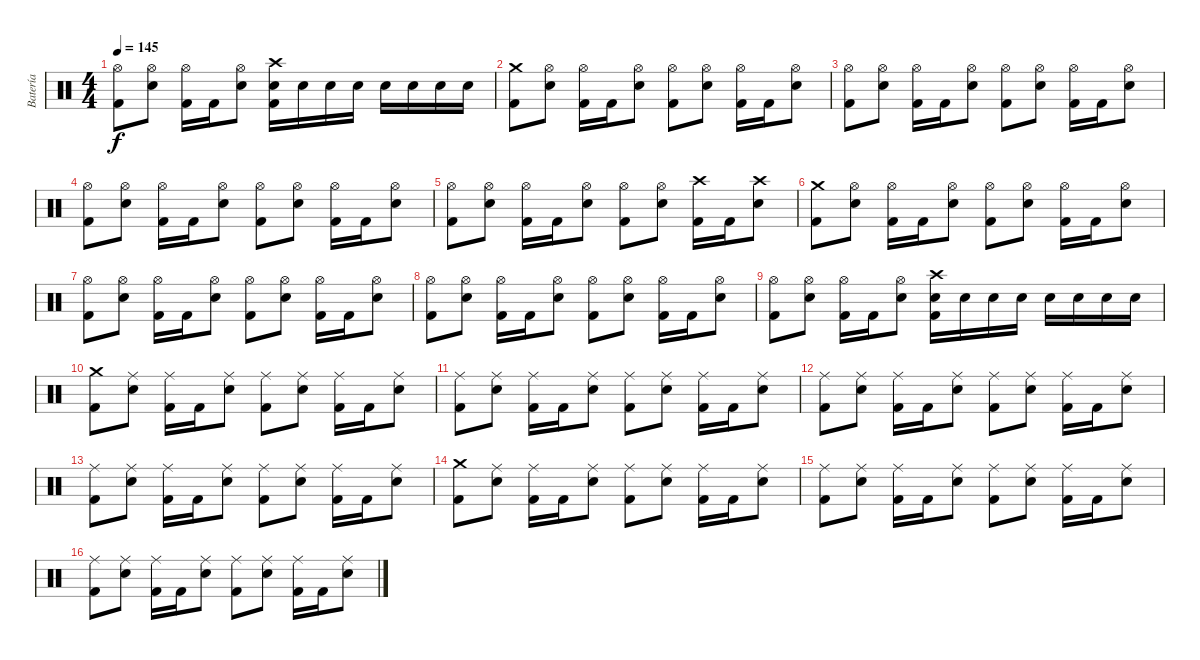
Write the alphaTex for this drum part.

\track ("Batería" "Batería") {instrument percussion}
\staff {score}
\articulation defaults
\ts (4 4)
\tempo 145
\clef neutral
\ks c
("Kick (hit) 2" "Hi-Hat (open)").8{dy f} ("Electric Snare (hit)" "Hi-Hat (open)").8 ("Kick (hit) 2" "Hi-Hat (open)").16 "Kick (hit) 2".16 ("Electric Snare (hit)" "Hi-Hat (open)").8 ("Kick (hit) 2" "Electric Snare (hit)" "Crash high (hit)").16 "Electric Snare (hit)".16 "Electric Snare (hit)".16 "Electric Snare (hit)".16 "Electric Snare (hit)".16 "Electric Snare (hit)".16 "Electric Snare (hit)".16 "Electric Snare (hit)".16 |
("Kick (hit) 2" "Crash medium (hit)").8 ("Electric Snare (hit)" "Hi-Hat (open)").8 ("Kick (hit) 2" "Hi-Hat (open)").16 "Kick (hit) 2".16 ("Electric Snare (hit)" "Hi-Hat (open)").8 ("Kick (hit) 2" "Hi-Hat (open)").8 ("Electric Snare (hit)" "Hi-Hat (open)").8 ("Kick (hit) 2" "Hi-Hat (open)").16 "Kick (hit) 2".16 ("Electric Snare (hit)" "Hi-Hat (open)").8 |
("Kick (hit) 2" "Hi-Hat (open)").8 ("Electric Snare (hit)" "Hi-Hat (open)").8 ("Kick (hit) 2" "Hi-Hat (open)").16 "Kick (hit) 2".16 ("Electric Snare (hit)" "Hi-Hat (open)").8 ("Kick (hit) 2" "Hi-Hat (open)").8 ("Electric Snare (hit)" "Hi-Hat (open)").8 ("Kick (hit) 2" "Hi-Hat (open)").16 "Kick (hit) 2".16 ("Electric Snare (hit)" "Hi-Hat (open)").8 |
("Kick (hit) 2" "Hi-Hat (open)").8 ("Electric Snare (hit)" "Hi-Hat (open)").8 ("Kick (hit) 2" "Hi-Hat (open)").16 "Kick (hit) 2".16 ("Electric Snare (hit)" "Hi-Hat (open)").8 ("Kick (hit) 2" "Hi-Hat (open)").8 ("Electric Snare (hit)" "Hi-Hat (open)").8 ("Kick (hit) 2" "Hi-Hat (open)").16 "Kick (hit) 2".16 ("Electric Snare (hit)" "Hi-Hat (open)").8 |
("Kick (hit) 2" "Hi-Hat (open)").8 ("Electric Snare (hit)" "Hi-Hat (open)").8 ("Kick (hit) 2" "Hi-Hat (open)").16 "Kick (hit) 2".16 ("Electric Snare (hit)" "Hi-Hat (open)").8 ("Kick (hit) 2" "Hi-Hat (open)").8 ("Electric Snare (hit)" "Hi-Hat (open)").8 ("Kick (hit) 2" "Crash high (hit)").16 "Kick (hit) 2".16 ("Electric Snare (hit)" "Crash high (hit)").8 |
("Kick (hit) 2" "Crash medium (hit)").8 ("Electric Snare (hit)" "Hi-Hat (open)").8 ("Kick (hit) 2" "Hi-Hat (open)").16 "Kick (hit) 2".16 ("Electric Snare (hit)" "Hi-Hat (open)").8 ("Kick (hit) 2" "Hi-Hat (open)").8 ("Electric Snare (hit)" "Hi-Hat (open)").8 ("Kick (hit) 2" "Hi-Hat (open)").16 "Kick (hit) 2".16 ("Electric Snare (hit)" "Hi-Hat (open)").8 |
("Kick (hit) 2" "Hi-Hat (open)").8 ("Electric Snare (hit)" "Hi-Hat (open)").8 ("Kick (hit) 2" "Hi-Hat (open)").16 "Kick (hit) 2".16 ("Electric Snare (hit)" "Hi-Hat (open)").8 ("Kick (hit) 2" "Hi-Hat (open)").8 ("Electric Snare (hit)" "Hi-Hat (open)").8 ("Kick (hit) 2" "Hi-Hat (open)").16 "Kick (hit) 2".16 ("Electric Snare (hit)" "Hi-Hat (open)").8 |
("Kick (hit) 2" "Hi-Hat (open)").8 ("Electric Snare (hit)" "Hi-Hat (open)").8 ("Kick (hit) 2" "Hi-Hat (open)").16 "Kick (hit) 2".16 ("Electric Snare (hit)" "Hi-Hat (open)").8 ("Kick (hit) 2" "Hi-Hat (open)").8 ("Electric Snare (hit)" "Hi-Hat (open)").8 ("Kick (hit) 2" "Hi-Hat (open)").16 "Kick (hit) 2".16 ("Electric Snare (hit)" "Hi-Hat (open)").8 |
("Kick (hit) 2" "Hi-Hat (open)").8 ("Electric Snare (hit)" "Hi-Hat (open)").8 ("Kick (hit) 2" "Hi-Hat (open)").16 "Kick (hit) 2".16 ("Electric Snare (hit)" "Hi-Hat (open)").8 ("Kick (hit) 2" "Electric Snare (hit)" "Crash high (hit)").16 "Electric Snare (hit)".16 "Electric Snare (hit)".16 "Electric Snare (hit)".16 "Electric Snare (hit)".16 "Electric Snare (hit)".16 "Electric Snare (hit)".16 "Electric Snare (hit)".16 |
("Kick (hit) 2" "Crash medium (hit)").8 ("Electric Snare (hit)" "Ride (middle)").8 ("Kick (hit) 2" "Ride (middle)").16 "Kick (hit) 2".16 ("Electric Snare (hit)" "Ride (middle)").8 ("Kick (hit) 2" "Ride (middle)").8 ("Electric Snare (hit)" "Ride (middle)").8 ("Kick (hit) 2" "Ride (middle)").16 "Kick (hit) 2".16 ("Electric Snare (hit)" "Ride (middle)").8 |
("Kick (hit) 2" "Ride (middle)").8 ("Electric Snare (hit)" "Ride (middle)").8 ("Kick (hit) 2" "Ride (middle)").16 "Kick (hit) 2".16 ("Electric Snare (hit)" "Ride (middle)").8 ("Kick (hit) 2" "Ride (middle)").8 ("Electric Snare (hit)" "Ride (middle)").8 ("Kick (hit) 2" "Ride (middle)").16 "Kick (hit) 2".16 ("Electric Snare (hit)" "Ride (middle)").8 |
("Kick (hit) 2" "Ride (middle)").8 ("Electric Snare (hit)" "Ride (middle)").8 ("Kick (hit) 2" "Ride (middle)").16 "Kick (hit) 2".16 ("Electric Snare (hit)" "Ride (middle)").8 ("Kick (hit) 2" "Ride (middle)").8 ("Electric Snare (hit)" "Ride (middle)").8 ("Kick (hit) 2" "Ride (middle)").16 "Kick (hit) 2".16 ("Electric Snare (hit)" "Ride (middle)").8 |
("Kick (hit) 2" "Ride (middle)").8 ("Electric Snare (hit)" "Ride (middle)").8 ("Kick (hit) 2" "Ride (middle)").16 "Kick (hit) 2".16 ("Electric Snare (hit)" "Ride (middle)").8 ("Kick (hit) 2" "Ride (middle)").8 ("Electric Snare (hit)" "Ride (middle)").8 ("Kick (hit) 2" "Ride (middle)").16 "Kick (hit) 2".16 ("Electric Snare (hit)" "Ride (middle)").8 |
("Kick (hit) 2" "Crash medium (hit)").8 ("Electric Snare (hit)" "Ride (middle)").8 ("Kick (hit) 2" "Ride (middle)").16 "Kick (hit) 2".16 ("Electric Snare (hit)" "Ride (middle)").8 ("Kick (hit) 2" "Ride (middle)").8 ("Electric Snare (hit)" "Ride (middle)").8 ("Kick (hit) 2" "Ride (middle)").16 "Kick (hit) 2".16 ("Electric Snare (hit)" "Ride (middle)").8 |
("Kick (hit) 2" "Ride (middle)").8 ("Electric Snare (hit)" "Ride (middle)").8 ("Kick (hit) 2" "Ride (middle)").16 "Kick (hit) 2".16 ("Electric Snare (hit)" "Ride (middle)").8 ("Kick (hit) 2" "Ride (middle)").8 ("Electric Snare (hit)" "Ride (middle)").8 ("Kick (hit) 2" "Ride (middle)").16 "Kick (hit) 2".16 ("Electric Snare (hit)" "Ride (middle)").8 |
("Kick (hit) 2" "Ride (middle)").8 ("Electric Snare (hit)" "Ride (middle)").8 ("Kick (hit) 2" "Ride (middle)").16 "Kick (hit) 2".16 ("Electric Snare (hit)" "Ride (middle)").8 ("Kick (hit) 2" "Ride (middle)").8 ("Electric Snare (hit)" "Ride (middle)").8 ("Kick (hit) 2" "Ride (middle)").16 "Kick (hit) 2".16 ("Electric Snare (hit)" "Ride (middle)").8
